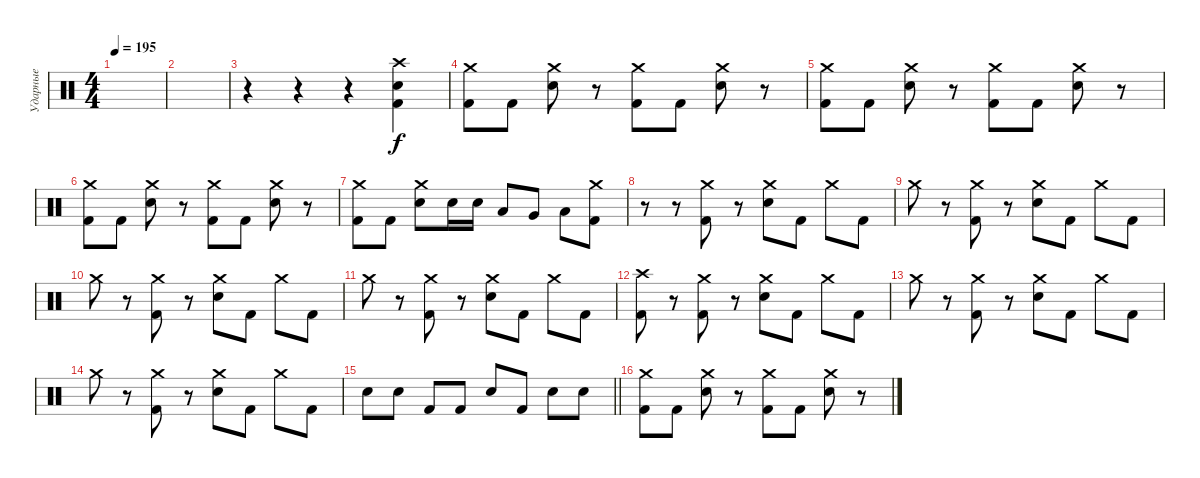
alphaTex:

\track ("Ударные" "Ударные") {instrument percussion}
\staff {score}
\articulation defaults
\ts (4 4)
\tempo 195
\clef neutral
\ks c
|
|
r.4 r.4 r.4 ("Crash high (hit)" "Electric Snare (hit)" "Kick (hit) 2").4 |
("Crash medium (hit)" "Kick (hit) 2").8 "Kick (hit) 2".8 ("Crash medium (hit)" "Electric Snare (hit)").8 r.8 ("Crash medium (hit)" "Kick (hit) 2").8 "Kick (hit) 2".8 ("Crash medium (hit)" "Electric Snare (hit)").8 r.8 |
("Crash medium (hit)" "Kick (hit) 2").8 "Kick (hit) 2".8 ("Crash medium (hit)" "Electric Snare (hit)").8 r.8 ("Crash medium (hit)" "Kick (hit) 2").8 "Kick (hit) 2".8 ("Crash medium (hit)" "Electric Snare (hit)").8 r.8 |
("Crash medium (hit)" "Kick (hit) 2").8 "Kick (hit) 2".8 ("Crash medium (hit)" "Electric Snare (hit)").8 r.8 ("Crash medium (hit)" "Kick (hit) 2").8 "Kick (hit) 2".8 ("Crash medium (hit)" "Electric Snare (hit)").8 r.8 |
("Crash medium (hit)" "Kick (hit) 2").8 "Kick (hit) 2".8 ("Crash medium (hit)" "Electric Snare (hit)").8 "Electric Snare (hit)".16 "Electric Snare (hit)".16 "Low Tom (hit)".8 "Very Low Tom (hit)".8 "Low Tom (hit)".8 ("Crash medium (hit)" "Kick (hit) 2").8 |
r.8 r.8 ("Crash medium (hit)" "Kick (hit) 2").8 r.8 ("Crash medium (hit)" "Electric Snare (hit)").8 "Kick (hit) 2".8 "Crash medium (hit)".8 "Kick (hit) 2".8 |
"Crash medium (hit)".8 r.8 ("Crash medium (hit)" "Kick (hit) 2").8 r.8 ("Crash medium (hit)" "Electric Snare (hit)").8 "Kick (hit) 2".8 "Crash medium (hit)".8 "Kick (hit) 2".8 |
"Crash medium (hit)".8 r.8 ("Crash medium (hit)" "Kick (hit) 2").8 r.8 ("Crash medium (hit)" "Electric Snare (hit)").8 "Kick (hit) 2".8 "Crash medium (hit)".8 "Kick (hit) 2".8 |
"Crash medium (hit)".8 r.8 ("Crash medium (hit)" "Kick (hit) 2").8 r.8 ("Crash medium (hit)" "Electric Snare (hit)").8 "Kick (hit) 2".8 "Crash medium (hit)".8 "Kick (hit) 2".8 |
("Crash high (hit)" "Kick (hit) 2").8 r.8 ("Crash medium (hit)" "Kick (hit) 2").8 r.8 ("Crash medium (hit)" "Electric Snare (hit)").8 "Kick (hit) 2".8 "Crash medium (hit)".8 "Kick (hit) 2".8 |
"Crash medium (hit)".8 r.8 ("Crash medium (hit)" "Kick (hit) 2").8 r.8 ("Crash medium (hit)" "Electric Snare (hit)").8 "Kick (hit) 2".8 "Crash medium (hit)".8 "Kick (hit) 2".8 |
"Crash medium (hit)".8 r.8 ("Crash medium (hit)" "Kick (hit) 2").8 r.8 ("Crash medium (hit)" "Electric Snare (hit)").8 "Kick (hit) 2".8 "Crash medium (hit)".8 "Kick (hit) 2".8 |
\barLineRight lightlight "Electric Snare (hit)".8 "Electric Snare (hit)".8 "Kick (hit) 2".8 "Kick (hit) 2".8 "Electric Snare (hit)".8 "Kick (hit) 2".8 "Electric Snare (hit)".8 "Electric Snare (hit)".8
|
("Crash medium (hit)" "Kick (hit) 2").8 "Kick (hit) 2".8 ("Crash medium (hit)" "Electric Snare (hit)").8 r.8 ("Crash medium (hit)" "Kick (hit) 2").8 "Kick (hit) 2".8 ("Crash medium (hit)" "Electric Snare (hit)").8 r.8
